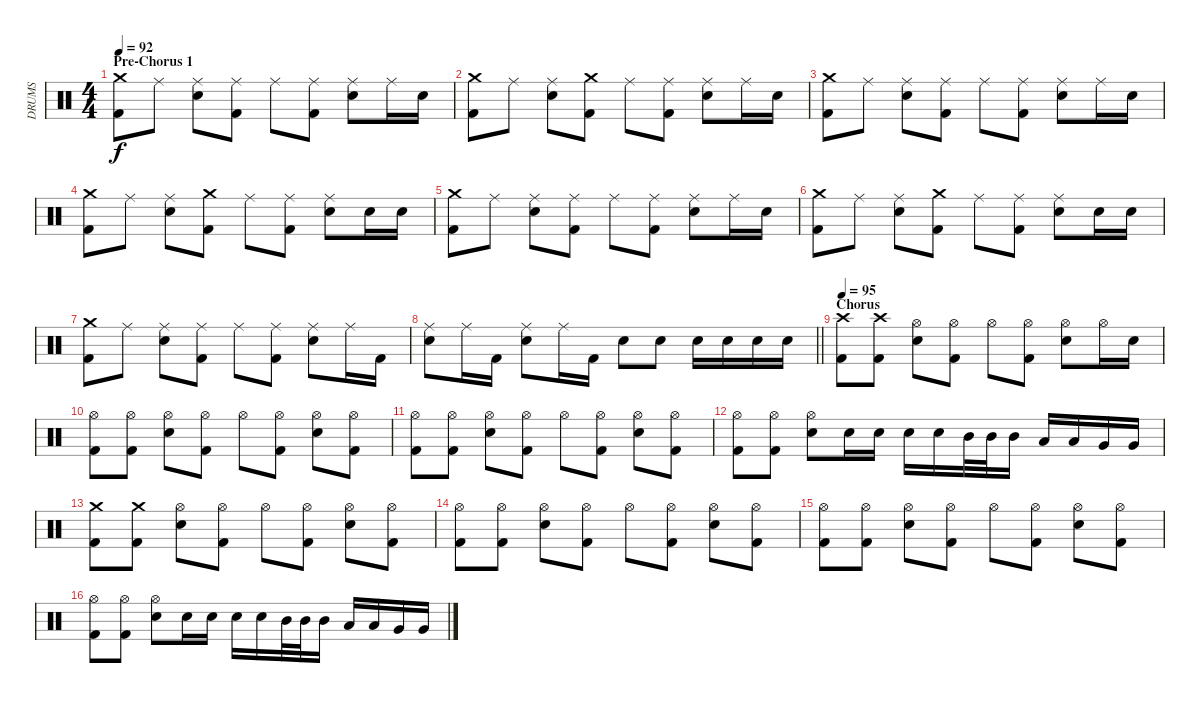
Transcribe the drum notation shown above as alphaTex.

\track ("DRUMS" "DRUMS") {instrument percussion}
\staff {score}
\articulation defaults
\ts (4 4)
\section ("" "Pre-Chorus 1")
\tempo 92
\clef neutral
\ks c
("Crash medium (hit)" "Kick (hit) 2").8{dy f} "Ride (middle)".8 ("Ride (middle)" "Snare (hit) 2").8 ("Ride (middle)" "Kick (hit) 2").8 "Ride (middle)".8 ("Ride (middle)" "Kick (hit) 2").8 ("Ride (middle)" "Snare (hit) 2").8 "Ride (middle)".16 "Snare (hit) 2".16 |
("Crash medium (hit)" "Kick (hit) 2").8 "Ride (middle)".8 ("Ride (middle)" "Snare (hit) 2").8 ("Crash medium (hit)" "Kick (hit) 2").8 "Ride (middle)".8 ("Ride (middle)" "Kick (hit) 2").8 ("Ride (middle)" "Snare (hit) 2").8 "Ride (middle)".16 "Snare (hit) 2".16 |
("Crash medium (hit)" "Kick (hit) 2").8 "Ride (middle)".8 ("Ride (middle)" "Snare (hit) 2").8 ("Ride (middle)" "Kick (hit) 2").8 "Ride (middle)".8 ("Ride (middle)" "Kick (hit) 2").8 ("Ride (middle)" "Snare (hit) 2").8 "Ride (middle)".16 "Snare (hit) 2".16 |
("Crash medium (hit)" "Kick (hit) 2").8 "Ride (middle)".8 ("Ride (middle)" "Snare (hit) 2").8 ("Crash medium (hit)" "Kick (hit) 2").8 "Ride (middle)".8 ("Ride (middle)" "Kick (hit) 2").8 ("Ride (middle)" "Snare (hit) 2").8 "Snare (hit) 2".16 "Snare (hit) 2".16 |
("Crash medium (hit)" "Kick (hit) 2").8 "Ride (middle)".8 ("Ride (middle)" "Snare (hit) 2").8 ("Ride (middle)" "Kick (hit) 2").8 "Ride (middle)".8 ("Ride (middle)" "Kick (hit) 2").8 ("Ride (middle)" "Snare (hit) 2").8 "Ride (middle)".16 "Snare (hit) 2".16 |
("Crash medium (hit)" "Kick (hit) 2").8 "Ride (middle)".8 ("Ride (middle)" "Snare (hit) 2").8 ("Crash medium (hit)" "Kick (hit) 2").8 "Ride (middle)".8 ("Ride (middle)" "Kick (hit) 2").8 ("Ride (middle)" "Snare (hit) 2").8 "Snare (hit) 2".16 "Snare (hit) 2".16 |
("Crash medium (hit)" "Kick (hit) 2").8 "Ride (middle)".8 ("Ride (middle)" "Snare (hit) 2").8 ("Ride (middle)" "Kick (hit) 2").8 "Ride (middle)".8 ("Ride (middle)" "Kick (hit) 2").8 ("Ride (middle)" "Snare (hit) 2").8 "Ride (middle)".16 "Kick (hit) 2".16 |
\barLineRight lightlight
("Ride (middle)" "Snare (hit) 2").8 "Ride (middle)".16 "Kick (hit) 2".16 ("Ride (middle)" "Snare (hit) 2").8 "Ride (middle)".16 "Kick (hit) 2".16 "Snare (hit) 2".8 "Snare (hit) 2".8 "Snare (hit) 2".16 "Snare (hit) 2".16 "Snare (hit) 2".16 "Snare (hit) 2".16 |
\section ("" "Chorus")
\tempo 95
("Crash high (hit)" "Kick (hit) 2").8 ("Crash high (hit)" "Kick (hit) 2").8 ("Hi-Hat (open)" "Snare (hit) 2").8 ("Hi-Hat (open)" "Kick (hit) 2").8 "Hi-Hat (open)".8 ("Hi-Hat (open)" "Kick (hit) 2").8 ("Hi-Hat (open)" "Snare (hit) 2").8 "Hi-Hat (open)".16 "Snare (hit) 2".16 |
("Hi-Hat (open)" "Kick (hit) 2").8 ("Hi-Hat (open)" "Kick (hit) 2").8 ("Hi-Hat (open)" "Snare (hit) 2").8 ("Hi-Hat (open)" "Kick (hit) 2").8 "Hi-Hat (open)".8 ("Hi-Hat (open)" "Kick (hit) 2").8 ("Hi-Hat (open)" "Snare (hit) 2").8 ("Hi-Hat (open)" "Kick (hit) 2").8 |
("Hi-Hat (open)" "Kick (hit) 2").8 ("Hi-Hat (open)" "Kick (hit) 2").8 ("Hi-Hat (open)" "Snare (hit) 2").8 ("Hi-Hat (open)" "Kick (hit) 2").8 "Hi-Hat (open)".8 ("Hi-Hat (open)" "Kick (hit) 2").8 ("Hi-Hat (open)" "Snare (hit) 2").8 ("Hi-Hat (open)" "Kick (hit) 2").8 |
("Hi-Hat (open)" "Kick (hit) 2").8 ("Hi-Hat (open)" "Kick (hit) 2").8 ("Hi-Hat (open)" "Snare (hit) 2").8 "Snare (hit) 2".16 "Snare (hit) 2".16 "Snare (hit) 2".16 "Snare (hit) 2".16 "Mid Tom (hit)".32 "Mid Tom (hit)".32 "Mid Tom (hit)".16 "Low Tom (hit)".16 "Low Tom (hit)".16 "Very Low Tom (hit)".16 "Very Low Tom (hit)".16 |
("Crash medium (hit)" "Kick (hit) 2").8 ("Crash medium (hit)" "Kick (hit) 2").8 ("Hi-Hat (open)" "Snare (hit) 2").8 ("Hi-Hat (open)" "Kick (hit) 2").8 "Hi-Hat (open)".8 ("Hi-Hat (open)" "Kick (hit) 2").8 ("Hi-Hat (open)" "Snare (hit) 2").8 ("Hi-Hat (open)" "Kick (hit) 2").8 |
("Hi-Hat (open)" "Kick (hit) 2").8 ("Hi-Hat (open)" "Kick (hit) 2").8 ("Hi-Hat (open)" "Snare (hit) 2").8 ("Hi-Hat (open)" "Kick (hit) 2").8 "Hi-Hat (open)".8 ("Hi-Hat (open)" "Kick (hit) 2").8 ("Hi-Hat (open)" "Snare (hit) 2").8 ("Hi-Hat (open)" "Kick (hit) 2").8 |
("Hi-Hat (open)" "Kick (hit) 2").8 ("Hi-Hat (open)" "Kick (hit) 2").8 ("Hi-Hat (open)" "Snare (hit) 2").8 ("Hi-Hat (open)" "Kick (hit) 2").8 "Hi-Hat (open)".8 ("Hi-Hat (open)" "Kick (hit) 2").8 ("Hi-Hat (open)" "Snare (hit) 2").8 ("Hi-Hat (open)" "Kick (hit) 2").8 |
("Hi-Hat (open)" "Kick (hit) 2").8 ("Hi-Hat (open)" "Kick (hit) 2").8 ("Hi-Hat (open)" "Snare (hit) 2").8 "Snare (hit) 2".16 "Snare (hit) 2".16 "Snare (hit) 2".16 "Snare (hit) 2".16 "Mid Tom (hit)".32 "Mid Tom (hit)".32 "Mid Tom (hit)".16 "Low Tom (hit)".16 "Low Tom (hit)".16 "Very Low Tom (hit)".16 "Very Low Tom (hit)".16
